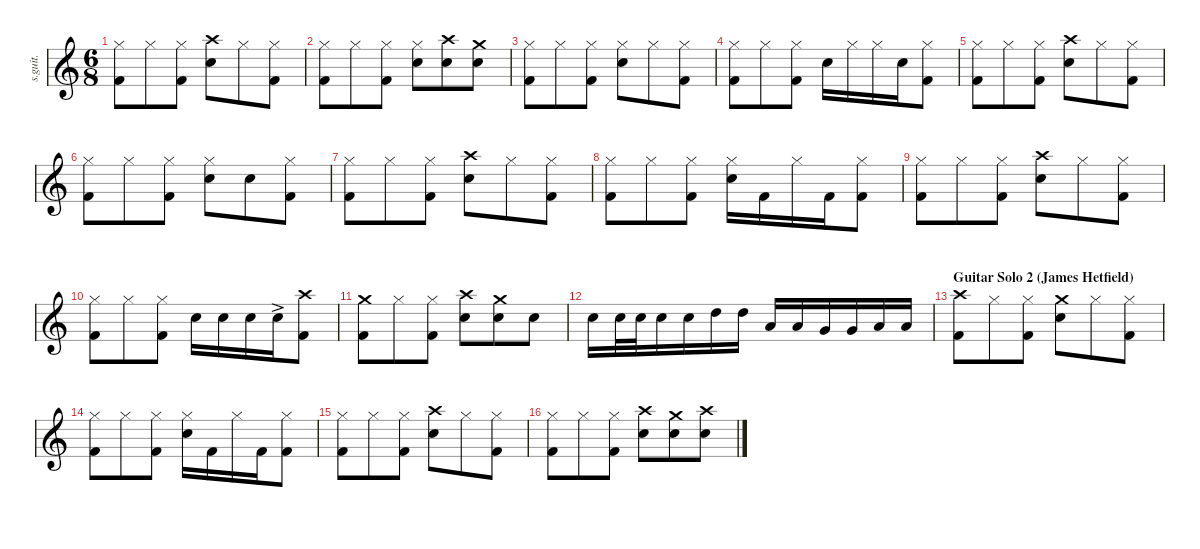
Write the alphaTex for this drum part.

\defaultSystemsLayout 4
\hideDynamics
\bracketExtendMode nobrackets
\track ("Drumkit" "s.guit.") {instrument percussion}
\staff {score}
\articulation defaults
\ts (6 8)
\tempo (78 hide)
\clef g2
\ks c
("Hi-Hat (closed)" "Kick (hit) 2").8{lyrics (0 "") lyrics (1 "") lyrics (2 "") lyrics (3 "") lyrics (4 "") dy f} "Hi-Hat (closed)".8{lyrics (0 "") lyrics (1 "") lyrics (2 "") lyrics (3 "") lyrics (4 "")} ("Hi-Hat (closed)" "Kick (hit) 2").8{lyrics (0 "") lyrics (1 "") lyrics (2 "") lyrics (3 "") lyrics (4 "")} ("Crash high (hit)" "Snare (hit) 2").8{lyrics (0 "") lyrics (1 "") lyrics (2 "") lyrics (3 "") lyrics (4 "")} "Hi-Hat (closed)".8{lyrics (0 "") lyrics (1 "") lyrics (2 "") lyrics (3 "") lyrics (4 "")} ("Hi-Hat (closed)" "Kick (hit) 2").8{lyrics (0 "") lyrics (1 "") lyrics (2 "") lyrics (3 "") lyrics (4 "")} |
("Hi-Hat (closed)" "Kick (hit) 2").8{lyrics (0 "") lyrics (1 "") lyrics (2 "") lyrics (3 "") lyrics (4 "")} "Hi-Hat (closed)".8{lyrics (0 "") lyrics (1 "") lyrics (2 "") lyrics (3 "") lyrics (4 "")} ("Hi-Hat (closed)" "Kick (hit) 2").8{lyrics (0 "") lyrics (1 "") lyrics (2 "") lyrics (3 "") lyrics (4 "")} ("Hi-Hat (closed)" "Snare (hit) 2").8{lyrics (0 "") lyrics (1 "") lyrics (2 "") lyrics (3 "") lyrics (4 "")} ("Crash high (hit)" "Snare (hit) 2").8{lyrics (0 "") lyrics (1 "") lyrics (2 "") lyrics (3 "") lyrics (4 "")} ("Crash medium (hit)" "Snare (hit) 2").8{lyrics (0 "") lyrics (1 "") lyrics (2 "") lyrics (3 "") lyrics (4 "")} |
("Hi-Hat (closed)" "Kick (hit) 2").8{lyrics (0 "") lyrics (1 "") lyrics (2 "") lyrics (3 "") lyrics (4 "")} "Hi-Hat (closed)".8{lyrics (0 "") lyrics (1 "") lyrics (2 "") lyrics (3 "") lyrics (4 "")} ("Hi-Hat (closed)" "Kick (hit) 2").8{lyrics (0 "") lyrics (1 "") lyrics (2 "") lyrics (3 "") lyrics (4 "")} ("Hi-Hat (closed)" "Snare (hit) 2").8{lyrics (0 "") lyrics (1 "") lyrics (2 "") lyrics (3 "") lyrics (4 "")} "Hi-Hat (closed)".8{lyrics (0 "") lyrics (1 "") lyrics (2 "") lyrics (3 "") lyrics (4 "")} ("Hi-Hat (closed)" "Kick (hit) 2").8{lyrics (0 "") lyrics (1 "") lyrics (2 "") lyrics (3 "") lyrics (4 "")} |
("Hi-Hat (closed)" "Kick (hit) 2").8{lyrics (0 "") lyrics (1 "") lyrics (2 "") lyrics (3 "") lyrics (4 "")} "Hi-Hat (closed)".8{lyrics (0 "") lyrics (1 "") lyrics (2 "") lyrics (3 "") lyrics (4 "")} ("Hi-Hat (closed)" "Kick (hit) 2").8{lyrics (0 "") lyrics (1 "") lyrics (2 "") lyrics (3 "") lyrics (4 "")} "Snare (hit) 2".16{lyrics (0 "") lyrics (1 "") lyrics (2 "") lyrics (3 "") lyrics (4 "")} "Hi-Hat (closed)".16{lyrics (0 "") lyrics (1 "") lyrics (2 "") lyrics (3 "") lyrics (4 "")} "Hi-Hat (closed)".16{lyrics (0 "") lyrics (1 "") lyrics (2 "") lyrics (3 "") lyrics (4 "")} "Snare (hit) 2".16{lyrics (0 "") lyrics (1 "") lyrics (2 "") lyrics (3 "") lyrics (4 "")} ("Hi-Hat (closed)" "Kick (hit) 2").8{lyrics (0 "") lyrics (1 "") lyrics (2 "") lyrics (3 "") lyrics (4 "")} |
("Hi-Hat (closed)" "Kick (hit) 2").8{lyrics (0 "") lyrics (1 "") lyrics (2 "") lyrics (3 "") lyrics (4 "")} "Hi-Hat (closed)".8{lyrics (0 "") lyrics (1 "") lyrics (2 "") lyrics (3 "") lyrics (4 "")} ("Hi-Hat (closed)" "Kick (hit) 2").8{lyrics (0 "") lyrics (1 "") lyrics (2 "") lyrics (3 "") lyrics (4 "")} ("Crash high (hit)" "Snare (hit) 2").8{lyrics (0 "") lyrics (1 "") lyrics (2 "") lyrics (3 "") lyrics (4 "")} "Hi-Hat (closed)".8{lyrics (0 "") lyrics (1 "") lyrics (2 "") lyrics (3 "") lyrics (4 "")} ("Hi-Hat (closed)" "Kick (hit) 2").8{lyrics (0 "") lyrics (1 "") lyrics (2 "") lyrics (3 "") lyrics (4 "")} |
("Hi-Hat (closed)" "Kick (hit) 2").8{lyrics (0 "") lyrics (1 "") lyrics (2 "") lyrics (3 "") lyrics (4 "")} "Hi-Hat (closed)".8{lyrics (0 "") lyrics (1 "") lyrics (2 "") lyrics (3 "") lyrics (4 "")} ("Hi-Hat (closed)" "Kick (hit) 2").8{lyrics (0 "") lyrics (1 "") lyrics (2 "") lyrics (3 "") lyrics (4 "")} ("Hi-Hat (closed)" "Snare (hit) 2").8{lyrics (0 "") lyrics (1 "") lyrics (2 "") lyrics (3 "") lyrics (4 "")} "Snare (hit) 2".8{lyrics (0 "") lyrics (1 "") lyrics (2 "") lyrics (3 "") lyrics (4 "")} ("Hi-Hat (closed)" "Kick (hit) 2").8{lyrics (0 "") lyrics (1 "") lyrics (2 "") lyrics (3 "") lyrics (4 "")} |
("Hi-Hat (closed)" "Kick (hit) 2").8{lyrics (0 "") lyrics (1 "") lyrics (2 "") lyrics (3 "") lyrics (4 "")} "Hi-Hat (closed)".8{lyrics (0 "") lyrics (1 "") lyrics (2 "") lyrics (3 "") lyrics (4 "")} ("Hi-Hat (closed)" "Kick (hit) 2").8{lyrics (0 "") lyrics (1 "") lyrics (2 "") lyrics (3 "") lyrics (4 "")} ("Crash high (hit)" "Snare (hit) 2").8{lyrics (0 "") lyrics (1 "") lyrics (2 "") lyrics (3 "") lyrics (4 "")} "Hi-Hat (closed)".8{lyrics (0 "") lyrics (1 "") lyrics (2 "") lyrics (3 "") lyrics (4 "")} ("Hi-Hat (closed)" "Kick (hit) 2").8{lyrics (0 "") lyrics (1 "") lyrics (2 "") lyrics (3 "") lyrics (4 "")} |
("Hi-Hat (closed)" "Kick (hit) 2").8{lyrics (0 "") lyrics (1 "") lyrics (2 "") lyrics (3 "") lyrics (4 "")} "Hi-Hat (closed)".8{lyrics (0 "") lyrics (1 "") lyrics (2 "") lyrics (3 "") lyrics (4 "")} ("Hi-Hat (closed)" "Kick (hit) 2").8{lyrics (0 "") lyrics (1 "") lyrics (2 "") lyrics (3 "") lyrics (4 "")} ("Hi-Hat (closed)" "Snare (hit) 2").16{lyrics (0 "") lyrics (1 "") lyrics (2 "") lyrics (3 "") lyrics (4 "")} "Kick (hit) 2".16{lyrics (0 "") lyrics (1 "") lyrics (2 "") lyrics (3 "") lyrics (4 "")} "Hi-Hat (closed)".16{lyrics (0 "") lyrics (1 "") lyrics (2 "") lyrics (3 "") lyrics (4 "")} "Kick (hit) 2".16{lyrics (0 "") lyrics (1 "") lyrics (2 "") lyrics (3 "") lyrics (4 "")} ("Hi-Hat (closed)" "Kick (hit) 2").8{lyrics (0 "") lyrics (1 "") lyrics (2 "") lyrics (3 "") lyrics (4 "")} |
("Hi-Hat (closed)" "Kick (hit) 2").8{lyrics (0 "") lyrics (1 "") lyrics (2 "") lyrics (3 "") lyrics (4 "")} "Hi-Hat (closed)".8{lyrics (0 "") lyrics (1 "") lyrics (2 "") lyrics (3 "") lyrics (4 "")} ("Hi-Hat (closed)" "Kick (hit) 2").8{lyrics (0 "") lyrics (1 "") lyrics (2 "") lyrics (3 "") lyrics (4 "")} ("Crash high (hit)" "Snare (hit) 2").8{lyrics (0 "") lyrics (1 "") lyrics (2 "") lyrics (3 "") lyrics (4 "")} "Hi-Hat (closed)".8{lyrics (0 "") lyrics (1 "") lyrics (2 "") lyrics (3 "") lyrics (4 "")} ("Hi-Hat (closed)" "Kick (hit) 2").8{lyrics (0 "") lyrics (1 "") lyrics (2 "") lyrics (3 "") lyrics (4 "")} |
("Hi-Hat (closed)" "Kick (hit) 2").8{lyrics (0 "") lyrics (1 "") lyrics (2 "") lyrics (3 "") lyrics (4 "")} "Hi-Hat (closed)".8{lyrics (0 "") lyrics (1 "") lyrics (2 "") lyrics (3 "") lyrics (4 "")} ("Hi-Hat (closed)" "Kick (hit) 2").8{lyrics (0 "") lyrics (1 "") lyrics (2 "") lyrics (3 "") lyrics (4 "")} "Snare (hit) 2".16{lyrics (0 "") lyrics (1 "") lyrics (2 "") lyrics (3 "") lyrics (4 "")} "Snare (hit) 2".16{lyrics (0 "") lyrics (1 "") lyrics (2 "") lyrics (3 "") lyrics (4 "")} "Snare (hit) 2".16{lyrics (0 "") lyrics (1 "") lyrics (2 "") lyrics (3 "") lyrics (4 "")} "Snare (hit) 2"{ac}.16{lyrics (0 "") lyrics (1 "") lyrics (2 "") lyrics (3 "") lyrics (4 "") dy ppp} ("Crash high (hit)" "Kick (hit) 2").8{lyrics (0 "") lyrics (1 "") lyrics (2 "") lyrics (3 "") lyrics (4 "") dy f} |
("Crash medium (hit)" "Kick (hit) 2").8{lyrics (0 "") lyrics (1 "") lyrics (2 "") lyrics (3 "") lyrics (4 "")} "Hi-Hat (closed)".8{lyrics (0 "") lyrics (1 "") lyrics (2 "") lyrics (3 "") lyrics (4 "")} ("Hi-Hat (closed)" "Kick (hit) 2").8{lyrics (0 "") lyrics (1 "") lyrics (2 "") lyrics (3 "") lyrics (4 "")} ("Crash high (hit)" "Snare (hit) 2").8{lyrics (0 "") lyrics (1 "") lyrics (2 "") lyrics (3 "") lyrics (4 "")} ("Crash medium (hit)" "Snare (hit) 2").8{lyrics (0 "") lyrics (1 "") lyrics (2 "") lyrics (3 "") lyrics (4 "")} "Snare (hit) 2".8{lyrics (0 "") lyrics (1 "") lyrics (2 "") lyrics (3 "") lyrics (4 "")} |
"Snare (hit) 2".16{lyrics (0 "") lyrics (1 "") lyrics (2 "") lyrics (3 "") lyrics (4 "")} "Snare (hit) 2".32{lyrics (0 "") lyrics (1 "") lyrics (2 "") lyrics (3 "") lyrics (4 "")} "Snare (hit) 2".32{lyrics (0 "") lyrics (1 "") lyrics (2 "") lyrics (3 "") lyrics (4 "")} "Snare (hit) 2".16{lyrics (0 "") lyrics (1 "") lyrics (2 "") lyrics (3 "") lyrics (4 "")} "Snare (hit) 2".16{lyrics (0 "") lyrics (1 "") lyrics (2 "") lyrics (3 "") lyrics (4 "")} "High Tom (hit)".16{lyrics (0 "") lyrics (1 "") lyrics (2 "") lyrics (3 "") lyrics (4 "")} "High Tom (hit)".16{lyrics (0 "") lyrics (1 "") lyrics (2 "") lyrics (3 "") lyrics (4 "")} "Low Tom (hit)".16{lyrics (0 "") lyrics (1 "") lyrics (2 "") lyrics (3 "") lyrics (4 "")} "Low Tom (hit)".16{lyrics (0 "") lyrics (1 "") lyrics (2 "") lyrics (3 "") lyrics (4 "")} "Very Low Tom (hit)".16{lyrics (0 "") lyrics (1 "") lyrics (2 "") lyrics (3 "") lyrics (4 "")} "Very Low Tom (hit)".16{lyrics (0 "") lyrics (1 "") lyrics (2 "") lyrics (3 "") lyrics (4 "")} "Low Floor Tom (hit)".16{lyrics (0 "") lyrics (1 "") lyrics (2 "") lyrics (3 "") lyrics (4 "")} "Low Floor Tom (hit)".16{lyrics (0 "") lyrics (1 "") lyrics (2 "") lyrics (3 "") lyrics (4 "")} |
\section ("" "Guitar Solo 2 (James Hetfield)")
("Crash high (hit)" "Kick (hit) 2").8{lyrics (0 "") lyrics (1 "") lyrics (2 "") lyrics (3 "") lyrics (4 "")} "Hi-Hat (closed)".8{lyrics (0 "") lyrics (1 "") lyrics (2 "") lyrics (3 "") lyrics (4 "")} ("Hi-Hat (closed)" "Kick (hit) 2").8{lyrics (0 "") lyrics (1 "") lyrics (2 "") lyrics (3 "") lyrics (4 "")} ("Crash medium (hit)" "Snare (hit) 2").8{lyrics (0 "") lyrics (1 "") lyrics (2 "") lyrics (3 "") lyrics (4 "")} "Hi-Hat (closed)".8{lyrics (0 "") lyrics (1 "") lyrics (2 "") lyrics (3 "") lyrics (4 "")} ("Hi-Hat (closed)" "Kick (hit) 2").8{lyrics (0 "") lyrics (1 "") lyrics (2 "") lyrics (3 "") lyrics (4 "")} |
("Hi-Hat (closed)" "Kick (hit) 2").8{lyrics (0 "") lyrics (1 "") lyrics (2 "") lyrics (3 "") lyrics (4 "")} "Hi-Hat (closed)".8{lyrics (0 "") lyrics (1 "") lyrics (2 "") lyrics (3 "") lyrics (4 "")} ("Hi-Hat (closed)" "Kick (hit) 2").8{lyrics (0 "") lyrics (1 "") lyrics (2 "") lyrics (3 "") lyrics (4 "")} ("Hi-Hat (closed)" "Snare (hit) 2").16{lyrics (0 "") lyrics (1 "") lyrics (2 "") lyrics (3 "") lyrics (4 "")} "Kick (hit) 2".16{lyrics (0 "") lyrics (1 "") lyrics (2 "") lyrics (3 "") lyrics (4 "")} "Hi-Hat (closed)".16{lyrics (0 "") lyrics (1 "") lyrics (2 "") lyrics (3 "") lyrics (4 "")} "Kick (hit) 2".16{lyrics (0 "") lyrics (1 "") lyrics (2 "") lyrics (3 "") lyrics (4 "")} ("Hi-Hat (closed)" "Kick (hit) 2").8{lyrics (0 "") lyrics (1 "") lyrics (2 "") lyrics (3 "") lyrics (4 "")} |
("Hi-Hat (closed)" "Kick (hit) 2").8{lyrics (0 "") lyrics (1 "") lyrics (2 "") lyrics (3 "") lyrics (4 "")} "Hi-Hat (closed)".8{lyrics (0 "") lyrics (1 "") lyrics (2 "") lyrics (3 "") lyrics (4 "")} ("Hi-Hat (closed)" "Kick (hit) 2").8{lyrics (0 "") lyrics (1 "") lyrics (2 "") lyrics (3 "") lyrics (4 "")} ("Crash high (hit)" "Snare (hit) 2").8{lyrics (0 "") lyrics (1 "") lyrics (2 "") lyrics (3 "") lyrics (4 "")} "Hi-Hat (closed)".8{lyrics (0 "") lyrics (1 "") lyrics (2 "") lyrics (3 "") lyrics (4 "")} ("Hi-Hat (closed)" "Kick (hit) 2").8{lyrics (0 "") lyrics (1 "") lyrics (2 "") lyrics (3 "") lyrics (4 "")} |
("Hi-Hat (closed)" "Kick (hit) 2").8{lyrics (0 "") lyrics (1 "") lyrics (2 "") lyrics (3 "") lyrics (4 "")} "Hi-Hat (closed)".8{lyrics (0 "") lyrics (1 "") lyrics (2 "") lyrics (3 "") lyrics (4 "")} ("Hi-Hat (closed)" "Kick (hit) 2").8{lyrics (0 "") lyrics (1 "") lyrics (2 "") lyrics (3 "") lyrics (4 "")} ("Crash high (hit)" "Snare (hit) 2").8{lyrics (0 "") lyrics (1 "") lyrics (2 "") lyrics (3 "") lyrics (4 "")} ("Crash medium (hit)" "Snare (hit) 2").8{lyrics (0 "") lyrics (1 "") lyrics (2 "") lyrics (3 "") lyrics (4 "")} ("Crash high (hit)" "Snare (hit) 2").8{lyrics (0 "") lyrics (1 "") lyrics (2 "") lyrics (3 "") lyrics (4 "")}
